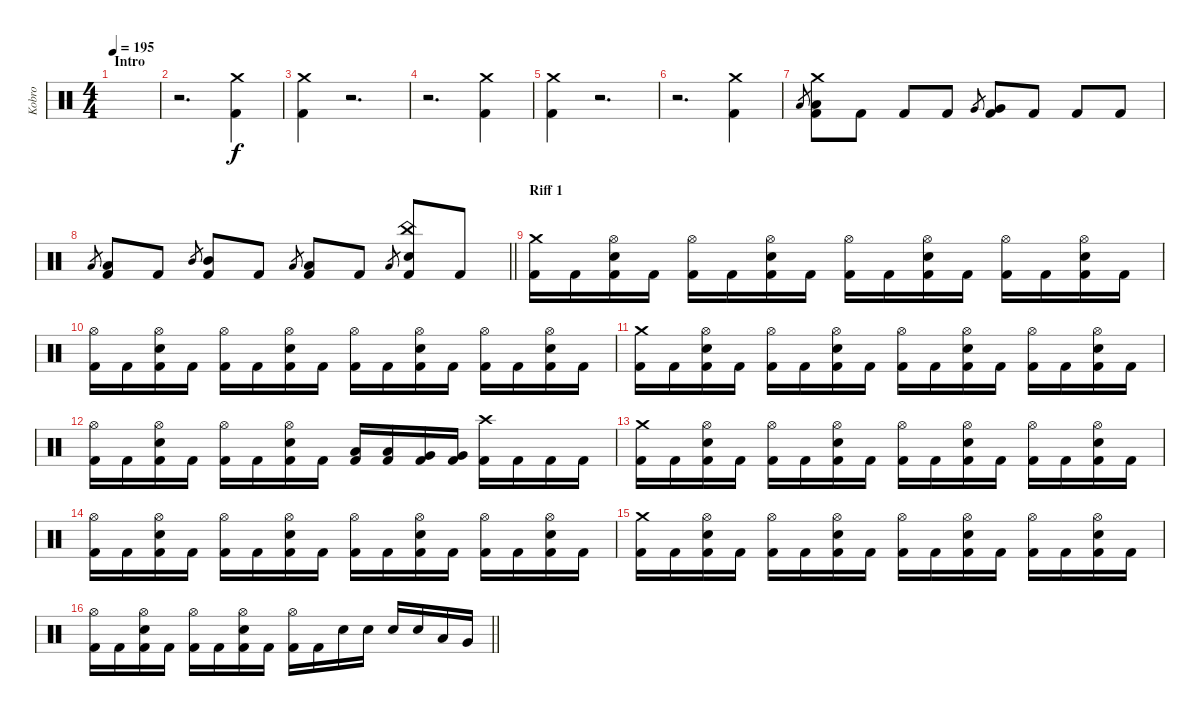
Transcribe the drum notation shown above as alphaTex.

\track ("Kobro" "Kobro") {instrument percussion}
\staff {score}
\articulation defaults
\ts (4 4)
\section ("" "Intro")
\tempo 195
\clef neutral
\ks c
|
r.2{d volume 13} ("Crash medium (hit)" "Kick (hit) 2").4 |
("Crash medium (hit)" "Kick (hit) 2").4 r.2{d volume 0} |
r.2{d volume 13} ("Crash medium (hit)" "Kick (hit) 2").4 |
("Crash medium (hit)" "Kick (hit) 2").4 r.2{d volume 0} |
r.2{d volume 13} ("Crash medium (hit)" "Kick (hit) 2").4 |
"Low Tom (hit)".8{gr} ("Crash medium (hit)" "Low Tom (hit)" "Kick (hit) 2").8 "Kick (hit) 2".8 "Kick (hit) 2".8 "Kick (hit) 2".8 "Very Low Tom (hit)".8{gr} ("Very Low Tom (hit)" "Kick (hit) 2").8 "Kick (hit) 2".8 "Kick (hit) 2".8 "Kick (hit) 2".8 |
\barLineRight lightlight "Low Tom (hit)".8{gr}
("Low Tom (hit)" "Kick (hit) 2").8 "Kick (hit) 2".8 "Mid Tom (hit)".8{gr} ("Mid Tom (hit)" "Kick (hit) 2").8 "Kick (hit) 2".8 "Low Tom (hit)".8{gr} ("Low Tom (hit)" "Kick (hit) 2").8 "Kick (hit) 2".8 "Low Tom (hit)".8{gr} ("China (hit)" "Electric Snare (hit)" "Kick (hit) 2").8 "Kick (hit) 2".8 |
\section ("" "Riff 1")
("Crash medium (hit)" "Kick (hit) 2").16 "Kick (hit) 2".16 ("Hi-Hat (open)" "Electric Snare (hit)" "Kick (hit) 2").16 "Kick (hit) 2".16 ("Hi-Hat (open)" "Kick (hit) 2").16 "Kick (hit) 2".16 ("Hi-Hat (open)" "Electric Snare (hit)" "Kick (hit) 2").16 "Kick (hit) 2".16 ("Hi-Hat (open)" "Kick (hit) 2").16 "Kick (hit) 2".16 ("Hi-Hat (open)" "Electric Snare (hit)" "Kick (hit) 2").16 "Kick (hit) 2".16 ("Hi-Hat (open)" "Kick (hit) 2").16 "Kick (hit) 2".16 ("Hi-Hat (open)" "Electric Snare (hit)" "Kick (hit) 2").16 "Kick (hit) 2".16 |
("Hi-Hat (open)" "Kick (hit) 2").16 "Kick (hit) 2".16 ("Hi-Hat (open)" "Electric Snare (hit)" "Kick (hit) 2").16 "Kick (hit) 2".16 ("Hi-Hat (open)" "Kick (hit) 2").16 "Kick (hit) 2".16 ("Hi-Hat (open)" "Electric Snare (hit)" "Kick (hit) 2").16 "Kick (hit) 2".16 ("Hi-Hat (open)" "Kick (hit) 2").16 "Kick (hit) 2".16 ("Hi-Hat (open)" "Electric Snare (hit)" "Kick (hit) 2").16 "Kick (hit) 2".16 ("Hi-Hat (open)" "Kick (hit) 2").16 "Kick (hit) 2".16 ("Hi-Hat (open)" "Electric Snare (hit)" "Kick (hit) 2").16 "Kick (hit) 2".16 |
("Crash medium (hit)" "Kick (hit) 2").16 "Kick (hit) 2".16 ("Hi-Hat (open)" "Electric Snare (hit)" "Kick (hit) 2").16 "Kick (hit) 2".16 ("Hi-Hat (open)" "Kick (hit) 2").16 "Kick (hit) 2".16 ("Hi-Hat (open)" "Electric Snare (hit)" "Kick (hit) 2").16 "Kick (hit) 2".16 ("Hi-Hat (open)" "Kick (hit) 2").16 "Kick (hit) 2".16 ("Hi-Hat (open)" "Electric Snare (hit)" "Kick (hit) 2").16 "Kick (hit) 2".16 ("Hi-Hat (open)" "Kick (hit) 2").16 "Kick (hit) 2".16 ("Hi-Hat (open)" "Electric Snare (hit)" "Kick (hit) 2").16 "Kick (hit) 2".16 |
("Hi-Hat (open)" "Kick (hit) 2").16 "Kick (hit) 2".16 ("Hi-Hat (open)" "Electric Snare (hit)" "Kick (hit) 2").16 "Kick (hit) 2".16 ("Hi-Hat (open)" "Kick (hit) 2").16 "Kick (hit) 2".16 ("Hi-Hat (open)" "Electric Snare (hit)" "Kick (hit) 2").16 "Kick (hit) 2".16 ("Low Tom (hit)" "Kick (hit) 2").16 ("Low Tom (hit)" "Kick (hit) 2").16 ("Very Low Tom (hit)" "Kick (hit) 2").16 ("Very Low Tom (hit)" "Kick (hit) 2").16 ("Crash high (hit)" "Kick (hit) 2").16 "Kick (hit) 2".16 "Kick (hit) 2".16 "Kick (hit) 2".16 |
("Crash medium (hit)" "Kick (hit) 2").16 "Kick (hit) 2".16 ("Hi-Hat (open)" "Electric Snare (hit)" "Kick (hit) 2").16 "Kick (hit) 2".16 ("Hi-Hat (open)" "Kick (hit) 2").16 "Kick (hit) 2".16 ("Hi-Hat (open)" "Electric Snare (hit)" "Kick (hit) 2").16 "Kick (hit) 2".16 ("Hi-Hat (open)" "Kick (hit) 2").16 "Kick (hit) 2".16 ("Hi-Hat (open)" "Electric Snare (hit)" "Kick (hit) 2").16 "Kick (hit) 2".16 ("Hi-Hat (open)" "Kick (hit) 2").16 "Kick (hit) 2".16 ("Hi-Hat (open)" "Electric Snare (hit)" "Kick (hit) 2").16 "Kick (hit) 2".16 |
("Hi-Hat (open)" "Kick (hit) 2").16 "Kick (hit) 2".16 ("Hi-Hat (open)" "Electric Snare (hit)" "Kick (hit) 2").16 "Kick (hit) 2".16 ("Hi-Hat (open)" "Kick (hit) 2").16 "Kick (hit) 2".16 ("Hi-Hat (open)" "Electric Snare (hit)" "Kick (hit) 2").16 "Kick (hit) 2".16 ("Hi-Hat (open)" "Kick (hit) 2").16 "Kick (hit) 2".16 ("Hi-Hat (open)" "Electric Snare (hit)" "Kick (hit) 2").16 "Kick (hit) 2".16 ("Hi-Hat (open)" "Kick (hit) 2").16 "Kick (hit) 2".16 ("Hi-Hat (open)" "Electric Snare (hit)" "Kick (hit) 2").16 "Kick (hit) 2".16 |
("Crash medium (hit)" "Kick (hit) 2").16 "Kick (hit) 2".16 ("Hi-Hat (open)" "Electric Snare (hit)" "Kick (hit) 2").16 "Kick (hit) 2".16 ("Hi-Hat (open)" "Kick (hit) 2").16 "Kick (hit) 2".16 ("Hi-Hat (open)" "Electric Snare (hit)" "Kick (hit) 2").16 "Kick (hit) 2".16 ("Hi-Hat (open)" "Kick (hit) 2").16 "Kick (hit) 2".16 ("Hi-Hat (open)" "Electric Snare (hit)" "Kick (hit) 2").16 "Kick (hit) 2".16 ("Hi-Hat (open)" "Kick (hit) 2").16 "Kick (hit) 2".16 ("Hi-Hat (open)" "Electric Snare (hit)" "Kick (hit) 2").16 "Kick (hit) 2".16 |
\barLineRight lightlight
("Hi-Hat (open)" "Kick (hit) 2").16 "Kick (hit) 2".16 ("Hi-Hat (open)" "Electric Snare (hit)" "Kick (hit) 2").16 "Kick (hit) 2".16 ("Hi-Hat (open)" "Kick (hit) 2").16 "Kick (hit) 2".16 ("Hi-Hat (open)" "Electric Snare (hit)" "Kick (hit) 2").16 "Kick (hit) 2".16 ("Hi-Hat (open)" "Kick (hit) 2").16 "Kick (hit) 2".16 "Electric Snare (hit)".16 "Electric Snare (hit)".16 "Electric Snare (hit)".16 "Electric Snare (hit)".16 "Low Tom (hit)".16 "Very Low Tom (hit)".16
